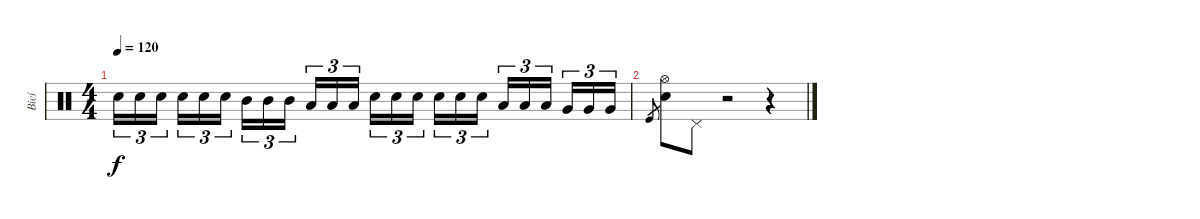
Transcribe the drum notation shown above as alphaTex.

\track ("Bicí" "Bicí") {instrument percussion}
\staff {score}
\articulation defaults
\ts (4 4)
\tempo 120
\clef neutral
\ks c "Electric Snare (hit)".16{tu (3 2) dy f} "Electric Snare (hit)".16{tu (3 2)} "Electric Snare (hit)".16{tu (3 2) beam splitsecondary} "Electric Snare (hit)".16{tu (3 2)} "Electric Snare (hit)".16{tu (3 2)} "Electric Snare (hit)".16{tu (3 2)} "Mid Tom (hit)".16{tu (3 2)} "Mid Tom (hit)".16{tu (3 2)} "Mid Tom (hit)".16{tu (3 2) beam splitsecondary} "Low Tom (hit)".16{tu (3 2)} "Low Tom (hit)".16{tu (3 2)} "Low Tom (hit)".16{tu (3 2)} "Electric Snare (hit)".16{tu (3 2)} "Electric Snare (hit)".16{tu (3 2)} "Electric Snare (hit)".16{tu (3 2) beam splitsecondary} "Electric Snare (hit)".16{tu (3 2)} "Electric Snare (hit)".16{tu (3 2)} "Electric Snare (hit)".16{tu (3 2)} "Low Tom (hit)".16{tu (3 2)} "Low Tom (hit)".16{tu (3 2)} "Low Tom (hit)".16{tu (3 2) beam splitsecondary} "Very Low Tom (hit)".16{tu (3 2)} "Very Low Tom (hit)".16{tu (3 2)} "Very Low Tom (hit)".16{tu (3 2)}
|
"Kick (hit)".8{gr} ("Hi-Hat (open)" "Electric Snare (hit)").8 "Pedal Hi-Hat (hit)".8 r.2 r.4
